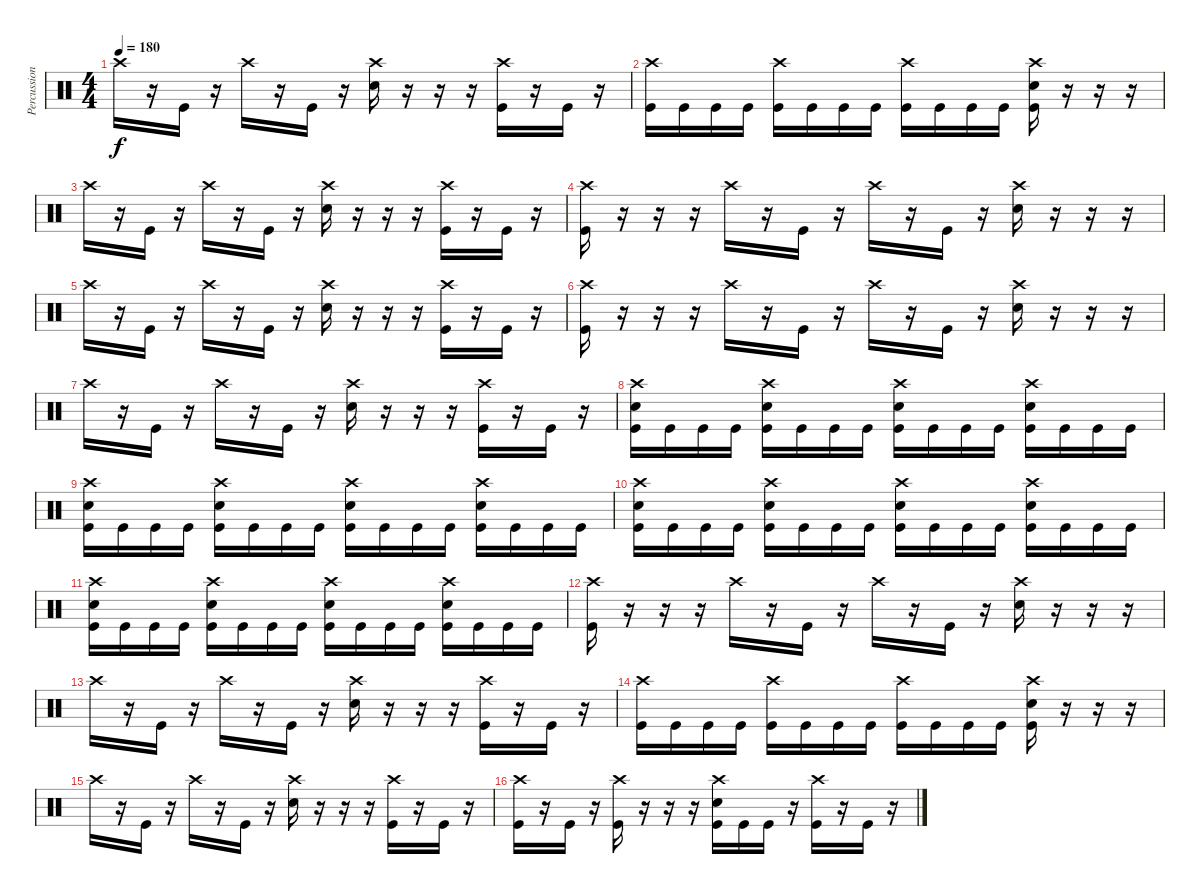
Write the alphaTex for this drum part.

\track ("Percussion" "Percussion") {instrument percussion}
\staff {score}
\articulation defaults
\ts (4 4)
\tempo 180
\clef neutral
\ks c "Crash high (hit)".16{dy f}
r.16 "Kick (hit)".16 r.16 "Crash high (hit)".16 r.16 "Kick (hit)".16 r.16 ("Crash high (hit)" "Electric Snare (hit)").16 r.16 r.16 r.16 ("Crash high (hit)" "Kick (hit)").16 r.16 "Kick (hit)".16 r.16 |
("Crash high (hit)" "Kick (hit)").16 "Kick (hit)".16 "Kick (hit)".16 "Kick (hit)".16 ("Crash high (hit)" "Kick (hit)").16 "Kick (hit)".16 "Kick (hit)".16 "Kick (hit)".16 ("Crash high (hit)" "Kick (hit)").16 "Kick (hit)".16 "Kick (hit)".16 "Kick (hit)".16 ("Crash high (hit)" "Electric Snare (hit)" "Kick (hit)").16 r.16 r.16 r.16 |
"Crash high (hit)".16 r.16 "Kick (hit)".16 r.16 "Crash high (hit)".16 r.16 "Kick (hit)".16 r.16 ("Crash high (hit)" "Electric Snare (hit)").16 r.16 r.16 r.16 ("Crash high (hit)" "Kick (hit)").16 r.16 "Kick (hit)".16 r.16 |
("Crash high (hit)" "Kick (hit)").16 r.16 r.16 r.16 "Crash high (hit)".16 r.16 "Kick (hit)".16 r.16 "Crash high (hit)".16 r.16 "Kick (hit)".16 r.16 ("Crash high (hit)" "Electric Snare (hit)").16 r.16 r.16 r.16 |
"Crash high (hit)".16 r.16 "Kick (hit)".16 r.16 "Crash high (hit)".16 r.16 "Kick (hit)".16 r.16 ("Crash high (hit)" "Electric Snare (hit)").16 r.16 r.16 r.16 ("Crash high (hit)" "Kick (hit)").16 r.16 "Kick (hit)".16 r.16 |
("Crash high (hit)" "Kick (hit)").16 r.16 r.16 r.16 "Crash high (hit)".16 r.16 "Kick (hit)".16 r.16 "Crash high (hit)".16 r.16 "Kick (hit)".16 r.16 ("Crash high (hit)" "Electric Snare (hit)").16 r.16 r.16 r.16 |
"Crash high (hit)".16 r.16 "Kick (hit)".16 r.16 "Crash high (hit)".16 r.16 "Kick (hit)".16 r.16 ("Crash high (hit)" "Electric Snare (hit)").16 r.16 r.16 r.16 ("Crash high (hit)" "Kick (hit)").16 r.16 "Kick (hit)".16 r.16 |
("Electric Snare (hit)" "Crash high (hit)" "Kick (hit)").16 "Kick (hit)".16 "Kick (hit)".16 "Kick (hit)".16 ("Electric Snare (hit)" "Crash high (hit)" "Kick (hit)").16 "Kick (hit)".16 "Kick (hit)".16 "Kick (hit)".16 ("Electric Snare (hit)" "Crash high (hit)" "Kick (hit)").16 "Kick (hit)".16 "Kick (hit)".16 "Kick (hit)".16 ("Electric Snare (hit)" "Crash high (hit)" "Kick (hit)").16 "Kick (hit)".16 "Kick (hit)".16 "Kick (hit)".16 |
("Electric Snare (hit)" "Crash high (hit)" "Kick (hit)").16 "Kick (hit)".16 "Kick (hit)".16 "Kick (hit)".16 ("Electric Snare (hit)" "Crash high (hit)" "Kick (hit)").16 "Kick (hit)".16 "Kick (hit)".16 "Kick (hit)".16 ("Electric Snare (hit)" "Crash high (hit)" "Kick (hit)").16 "Kick (hit)".16 "Kick (hit)".16 "Kick (hit)".16 ("Electric Snare (hit)" "Crash high (hit)" "Kick (hit)").16 "Kick (hit)".16 "Kick (hit)".16 "Kick (hit)".16 |
("Electric Snare (hit)" "Crash high (hit)" "Kick (hit)").16 "Kick (hit)".16 "Kick (hit)".16 "Kick (hit)".16 ("Electric Snare (hit)" "Crash high (hit)" "Kick (hit)").16 "Kick (hit)".16 "Kick (hit)".16 "Kick (hit)".16 ("Electric Snare (hit)" "Crash high (hit)" "Kick (hit)").16 "Kick (hit)".16 "Kick (hit)".16 "Kick (hit)".16 ("Electric Snare (hit)" "Crash high (hit)" "Kick (hit)").16 "Kick (hit)".16 "Kick (hit)".16 "Kick (hit)".16 |
("Electric Snare (hit)" "Crash high (hit)" "Kick (hit)").16 "Kick (hit)".16 "Kick (hit)".16 "Kick (hit)".16 ("Electric Snare (hit)" "Crash high (hit)" "Kick (hit)").16 "Kick (hit)".16 "Kick (hit)".16 "Kick (hit)".16 ("Electric Snare (hit)" "Crash high (hit)" "Kick (hit)").16 "Kick (hit)".16 "Kick (hit)".16 "Kick (hit)".16 ("Electric Snare (hit)" "Crash high (hit)" "Kick (hit)").16 "Kick (hit)".16 "Kick (hit)".16 "Kick (hit)".16 |
("Crash high (hit)" "Kick (hit)").16 r.16 r.16 r.16 "Crash high (hit)".16 r.16 "Kick (hit)".16 r.16 "Crash high (hit)".16 r.16 "Kick (hit)".16 r.16 ("Crash high (hit)" "Electric Snare (hit)").16 r.16 r.16 r.16 |
"Crash high (hit)".16 r.16 "Kick (hit)".16 r.16 "Crash high (hit)".16 r.16 "Kick (hit)".16 r.16 ("Crash high (hit)" "Electric Snare (hit)").16 r.16 r.16 r.16 ("Crash high (hit)" "Kick (hit)").16 r.16 "Kick (hit)".16 r.16 |
("Crash high (hit)" "Kick (hit)").16 "Kick (hit)".16 "Kick (hit)".16 "Kick (hit)".16 ("Crash high (hit)" "Kick (hit)").16 "Kick (hit)".16 "Kick (hit)".16 "Kick (hit)".16 ("Crash high (hit)" "Kick (hit)").16 "Kick (hit)".16 "Kick (hit)".16 "Kick (hit)".16 ("Crash high (hit)" "Electric Snare (hit)" "Kick (hit)").16 r.16 r.16 r.16 |
"Crash high (hit)".16 r.16 "Kick (hit)".16 r.16 "Crash high (hit)".16 r.16 "Kick (hit)".16 r.16 ("Crash high (hit)" "Electric Snare (hit)").16 r.16 r.16 r.16 ("Crash high (hit)" "Kick (hit)").16 r.16 "Kick (hit)".16 r.16 |
("Crash high (hit)" "Kick (hit)").16 r.16 "Kick (hit)".16 r.16 ("Crash high (hit)" "Kick (hit)").16 r.16 r.16 r.16 ("Crash high (hit)" "Electric Snare (hit)" "Kick (hit)").16 "Kick (hit)".16 "Kick (hit)".16 r.16 ("Crash high (hit)" "Kick (hit)").16 r.16 "Kick (hit)".16 r.16
